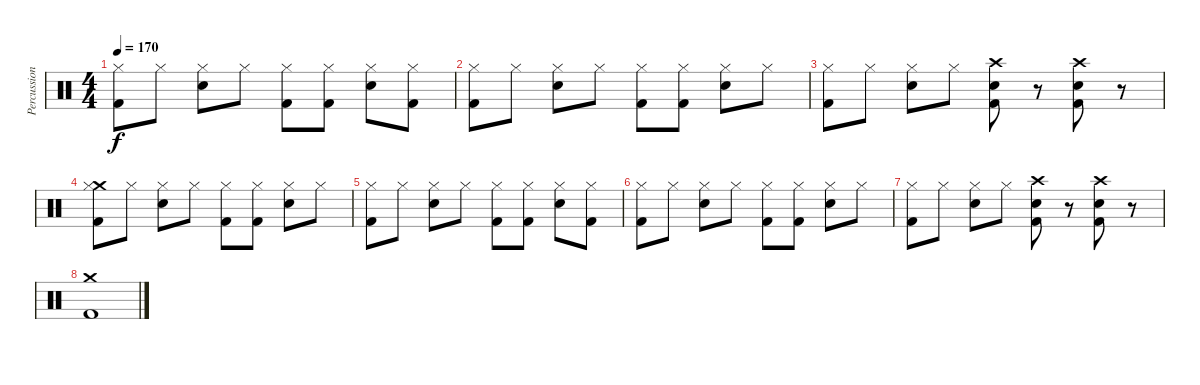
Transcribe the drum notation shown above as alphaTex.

\track ("Percussion" "Percussion") {instrument percussion}
\staff {score}
\articulation defaults
\ts (4 4)
\tempo 170
\clef neutral
\ks c
("Hi-Hat (closed)" "Kick (hit) 2").8{dy f} "Hi-Hat (closed)".8 ("Hi-Hat (closed)" "Snare (hit) 2").8 "Hi-Hat (closed)".8 ("Hi-Hat (closed)" "Kick (hit) 2").8 ("Hi-Hat (closed)" "Kick (hit) 2").8 ("Hi-Hat (closed)" "Snare (hit) 2").8 ("Hi-Hat (closed)" "Kick (hit) 2").8 |
("Hi-Hat (closed)" "Kick (hit) 2").8 "Hi-Hat (closed)".8 ("Hi-Hat (closed)" "Snare (hit) 2").8 "Hi-Hat (closed)".8 ("Hi-Hat (closed)" "Kick (hit) 2").8 ("Hi-Hat (closed)" "Kick (hit) 2").8 ("Hi-Hat (closed)" "Snare (hit) 2").8 "Hi-Hat (closed)".8 |
("Hi-Hat (closed)" "Kick (hit) 2").8 "Hi-Hat (closed)".8 ("Hi-Hat (closed)" "Snare (hit) 2").8 "Hi-Hat (closed)".8 ("Crash high (hit)" "Snare (hit) 2" "Kick (hit) 2").8 r.8 ("Crash high (hit)" "Snare (hit) 2" "Kick (hit) 2").8 r.8 |
("Crash medium (hit)" "Hi-Hat (closed)" "Kick (hit) 2").8 "Hi-Hat (closed)".8 ("Hi-Hat (closed)" "Snare (hit) 2").8 "Hi-Hat (closed)".8 ("Hi-Hat (closed)" "Kick (hit) 2").8 ("Hi-Hat (closed)" "Kick (hit) 2").8 ("Hi-Hat (closed)" "Snare (hit) 2").8 "Hi-Hat (closed)".8 |
("Hi-Hat (closed)" "Kick (hit) 2").8 "Hi-Hat (closed)".8 ("Hi-Hat (closed)" "Snare (hit) 2").8 "Hi-Hat (closed)".8 ("Hi-Hat (closed)" "Kick (hit) 2").8 ("Hi-Hat (closed)" "Kick (hit) 2").8 ("Hi-Hat (closed)" "Snare (hit) 2").8 ("Hi-Hat (closed)" "Kick (hit) 2").8 |
("Hi-Hat (closed)" "Kick (hit) 2").8 "Hi-Hat (closed)".8 ("Hi-Hat (closed)" "Snare (hit) 2").8 "Hi-Hat (closed)".8 ("Hi-Hat (closed)" "Kick (hit) 2").8 ("Hi-Hat (closed)" "Kick (hit) 2").8 ("Hi-Hat (closed)" "Snare (hit) 2").8 "Hi-Hat (closed)".8 |
("Hi-Hat (closed)" "Kick (hit) 2").8 "Hi-Hat (closed)".8 ("Hi-Hat (closed)" "Snare (hit) 2").8 "Hi-Hat (closed)".8 ("Crash high (hit)" "Snare (hit) 2" "Kick (hit) 2").8 r.8 ("Crash high (hit)" "Snare (hit) 2" "Kick (hit) 2").8 r.8 |
("Crash medium (hit)" "Kick (hit) 2").1
